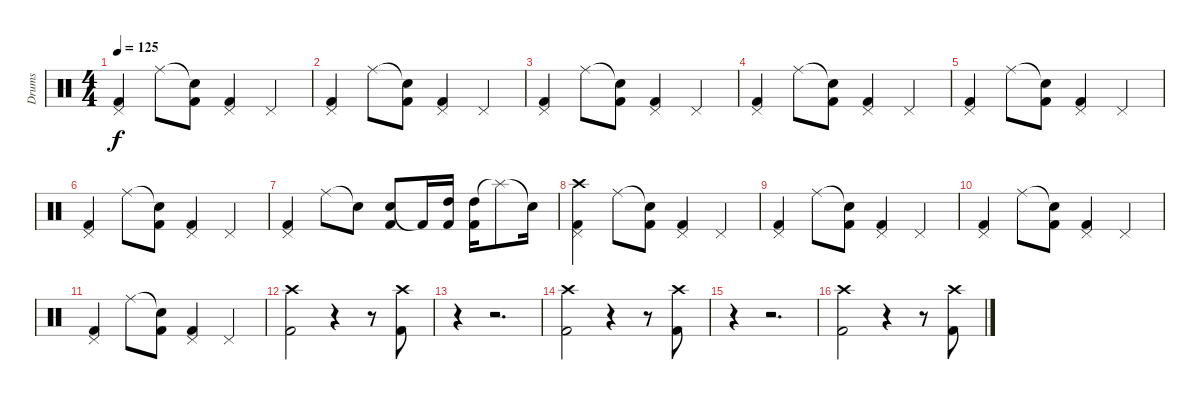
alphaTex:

\track ("Drums" "Drums") {instrument percussion}
\staff {score}
\articulation defaults
\ts (4 4)
\tempo 125
\clef neutral
\ks c
("Pedal Hi-Hat (hit)" "Kick (hit) 2").4{dy f} "Ride (middle)".8 ("Snare (hit)"{t} "Kick (hit) 2").8 ("Pedal Hi-Hat (hit)" "Kick (hit) 2").4 "Pedal Hi-Hat (hit)".4 |
("Pedal Hi-Hat (hit)" "Kick (hit) 2").4 "Ride (middle)".8 ("Snare (hit)"{t} "Kick (hit) 2").8 ("Pedal Hi-Hat (hit)" "Kick (hit) 2").4 "Pedal Hi-Hat (hit)".4 |
("Pedal Hi-Hat (hit)" "Kick (hit) 2").4 "Ride (middle)".8 ("Snare (hit)"{t} "Kick (hit) 2").8 ("Pedal Hi-Hat (hit)" "Kick (hit) 2").4 "Pedal Hi-Hat (hit)".4 |
("Pedal Hi-Hat (hit)" "Kick (hit) 2").4 "Ride (middle)".8 ("Snare (hit)"{t} "Kick (hit) 2").8 ("Pedal Hi-Hat (hit)" "Kick (hit) 2").4 "Pedal Hi-Hat (hit)".4 |
("Pedal Hi-Hat (hit)" "Kick (hit) 2").4 "Ride (middle)".8 ("Snare (hit)"{t} "Kick (hit) 2").8 ("Pedal Hi-Hat (hit)" "Kick (hit) 2").4 "Pedal Hi-Hat (hit)".4 |
("Pedal Hi-Hat (hit)" "Kick (hit) 2").4 "Ride (middle)".8 ("Snare (hit)"{t} "Kick (hit) 2").8 ("Pedal Hi-Hat (hit)" "Kick (hit) 2").4 "Pedal Hi-Hat (hit)".4 |
("Pedal Hi-Hat (hit)" "Kick (hit) 2").4 "Ride (middle)".8 "Snare (hit)"{t}.8 ("Snare (hit) 2" "Kick (hit) 2").8 "Kick (hit) 2"{t}.16 ("High Tom (hit)" "Kick (hit) 2").16 ("High Tom (hit)" "Kick (hit) 2").16 "Splash (hit)"{t}.8 "Snare (hit)"{t}.16 |
("Pedal Hi-Hat (hit)" "Kick (hit) 2" "Crash high (hit)").4 "Ride (middle)".8 ("Snare (hit)"{t} "Kick (hit) 2").8 ("Pedal Hi-Hat (hit)" "Kick (hit) 2").4 "Pedal Hi-Hat (hit)".4 |
("Pedal Hi-Hat (hit)" "Kick (hit) 2").4 "Ride (middle)".8 ("Snare (hit)"{t} "Kick (hit) 2").8 ("Pedal Hi-Hat (hit)" "Kick (hit) 2").4 "Pedal Hi-Hat (hit)".4 |
("Pedal Hi-Hat (hit)" "Kick (hit) 2").4 "Ride (middle)".8 ("Snare (hit)"{t} "Kick (hit) 2").8 ("Pedal Hi-Hat (hit)" "Kick (hit) 2").4 "Pedal Hi-Hat (hit)".4 |
("Pedal Hi-Hat (hit)" "Kick (hit) 2").4 "Ride (middle)".8 ("Snare (hit)"{t} "Kick (hit) 2").8 ("Pedal Hi-Hat (hit)" "Kick (hit) 2").4 "Pedal Hi-Hat (hit)".4 |
("Crash high (hit)" "Kick (hit) 2").2 r.4 r.8 ("Crash high (hit)" "Kick (hit) 2").8 |
r.4 r.2{d} |
("Crash high (hit)" "Kick (hit) 2").2 r.4 r.8 ("Crash high (hit)" "Kick (hit) 2").8 |
r.4 r.2{d} |
("Crash high (hit)" "Kick (hit) 2").2 r.4 r.8 ("Crash high (hit)" "Kick (hit) 2").8
